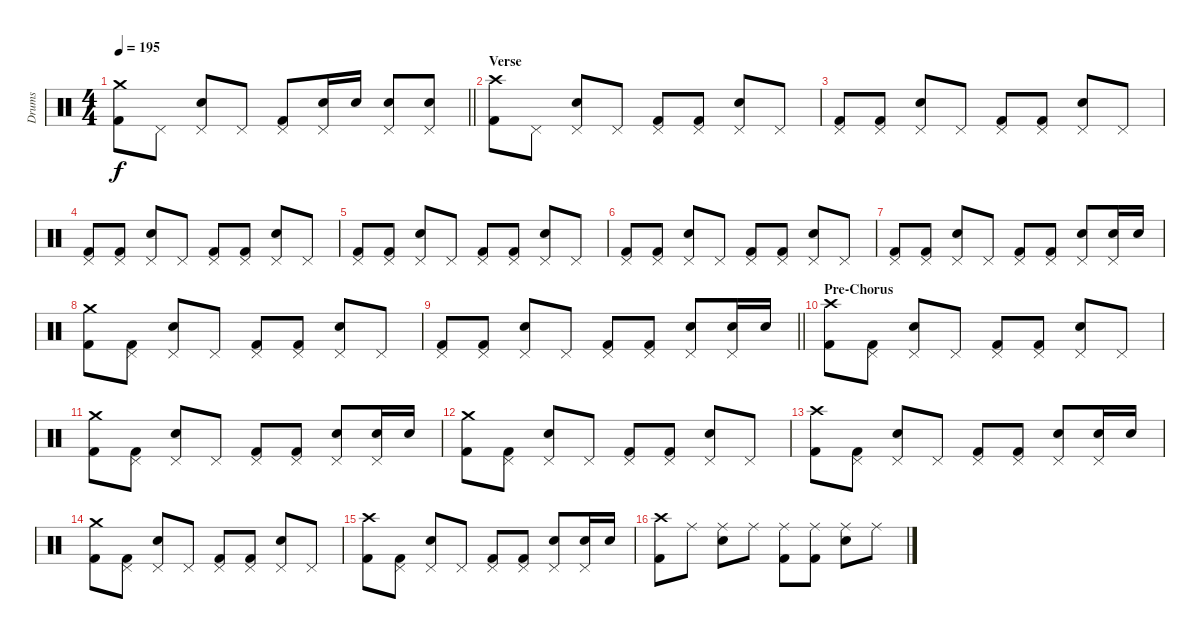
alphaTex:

\track ("Drums" "Drums") {instrument percussion}
\staff {score}
\articulation defaults
\ts (4 4)
\tempo 195
\clef neutral
\barLineRight lightlight
\ks c
("Crash medium (hit)" "Kick (hit) 2").8{dy f} "Pedal Hi-Hat (hit)".8 ("Pedal Hi-Hat (hit)" "Electric Snare (hit)").8 "Pedal Hi-Hat (hit)".8 ("Pedal Hi-Hat (hit)" "Kick (hit) 2").8 ("Pedal Hi-Hat (hit)" "Electric Snare (hit)").16 "Electric Snare (hit)".16 ("Pedal Hi-Hat (hit)" "Electric Snare (hit)").8 ("Pedal Hi-Hat (hit)" "Electric Snare (hit)").8 |
\section ("" "Verse")
("Crash high (hit)" "Kick (hit) 2").8 "Pedal Hi-Hat (hit)".8 ("Pedal Hi-Hat (hit)" "Electric Snare (hit)").8 "Pedal Hi-Hat (hit)".8 ("Pedal Hi-Hat (hit)" "Kick (hit) 2").8 ("Pedal Hi-Hat (hit)" "Kick (hit) 2").8 ("Pedal Hi-Hat (hit)" "Electric Snare (hit)").8 "Pedal Hi-Hat (hit)".8 |
("Pedal Hi-Hat (hit)" "Kick (hit) 2").8 ("Pedal Hi-Hat (hit)" "Kick (hit) 2").8 ("Pedal Hi-Hat (hit)" "Electric Snare (hit)").8 "Pedal Hi-Hat (hit)".8 ("Pedal Hi-Hat (hit)" "Kick (hit) 2").8 ("Pedal Hi-Hat (hit)" "Kick (hit) 2").8 ("Pedal Hi-Hat (hit)" "Electric Snare (hit)").8 "Pedal Hi-Hat (hit)".8 |
("Pedal Hi-Hat (hit)" "Kick (hit) 2").8 ("Pedal Hi-Hat (hit)" "Kick (hit) 2").8 ("Pedal Hi-Hat (hit)" "Electric Snare (hit)").8 "Pedal Hi-Hat (hit)".8 ("Pedal Hi-Hat (hit)" "Kick (hit) 2").8 ("Pedal Hi-Hat (hit)" "Kick (hit) 2").8 ("Pedal Hi-Hat (hit)" "Electric Snare (hit)").8 "Pedal Hi-Hat (hit)".8 |
("Pedal Hi-Hat (hit)" "Kick (hit) 2").8 ("Pedal Hi-Hat (hit)" "Kick (hit) 2").8 ("Pedal Hi-Hat (hit)" "Electric Snare (hit)").8 "Pedal Hi-Hat (hit)".8 ("Pedal Hi-Hat (hit)" "Kick (hit) 2").8 ("Pedal Hi-Hat (hit)" "Kick (hit) 2").8 ("Pedal Hi-Hat (hit)" "Electric Snare (hit)").8 "Pedal Hi-Hat (hit)".8 |
("Pedal Hi-Hat (hit)" "Kick (hit) 2").8 ("Pedal Hi-Hat (hit)" "Kick (hit) 2").8 ("Pedal Hi-Hat (hit)" "Electric Snare (hit)").8 "Pedal Hi-Hat (hit)".8 ("Pedal Hi-Hat (hit)" "Kick (hit) 2").8 ("Pedal Hi-Hat (hit)" "Kick (hit) 2").8 ("Pedal Hi-Hat (hit)" "Electric Snare (hit)").8 "Pedal Hi-Hat (hit)".8 |
("Pedal Hi-Hat (hit)" "Kick (hit) 2").8 ("Pedal Hi-Hat (hit)" "Kick (hit) 2").8 ("Pedal Hi-Hat (hit)" "Electric Snare (hit)").8 "Pedal Hi-Hat (hit)".8 ("Pedal Hi-Hat (hit)" "Kick (hit) 2").8 ("Pedal Hi-Hat (hit)" "Kick (hit) 2").8 ("Pedal Hi-Hat (hit)" "Electric Snare (hit)").8 ("Pedal Hi-Hat (hit)" "Electric Snare (hit)").16 "Electric Snare (hit)".16 |
("Crash medium (hit)" "Kick (hit) 2").8 ("Pedal Hi-Hat (hit)" "Kick (hit) 2").8 ("Pedal Hi-Hat (hit)" "Electric Snare (hit)").8 "Pedal Hi-Hat (hit)".8 ("Pedal Hi-Hat (hit)" "Kick (hit) 2").8 ("Pedal Hi-Hat (hit)" "Kick (hit) 2").8 ("Pedal Hi-Hat (hit)" "Electric Snare (hit)").8 "Pedal Hi-Hat (hit)".8 |
\barLineRight lightlight
("Pedal Hi-Hat (hit)" "Kick (hit) 2").8 ("Pedal Hi-Hat (hit)" "Kick (hit) 2").8 ("Pedal Hi-Hat (hit)" "Electric Snare (hit)").8 "Pedal Hi-Hat (hit)".8 ("Pedal Hi-Hat (hit)" "Kick (hit) 2").8 ("Pedal Hi-Hat (hit)" "Kick (hit) 2").8 ("Pedal Hi-Hat (hit)" "Electric Snare (hit)").8 ("Pedal Hi-Hat (hit)" "Electric Snare (hit)").16 "Electric Snare (hit)".16 |
\section ("" "Pre-Chorus")
("Crash high (hit)" "Kick (hit) 2").8 ("Pedal Hi-Hat (hit)" "Kick (hit) 2").8 ("Pedal Hi-Hat (hit)" "Electric Snare (hit)").8 "Pedal Hi-Hat (hit)".8 ("Pedal Hi-Hat (hit)" "Kick (hit) 2").8 ("Pedal Hi-Hat (hit)" "Kick (hit) 2").8 ("Pedal Hi-Hat (hit)" "Electric Snare (hit)").8 "Pedal Hi-Hat (hit)".8 |
("Crash medium (hit)" "Kick (hit) 2").8 ("Pedal Hi-Hat (hit)" "Kick (hit) 2").8 ("Pedal Hi-Hat (hit)" "Electric Snare (hit)").8 "Pedal Hi-Hat (hit)".8 ("Pedal Hi-Hat (hit)" "Kick (hit) 2").8 ("Pedal Hi-Hat (hit)" "Kick (hit) 2").8 ("Pedal Hi-Hat (hit)" "Electric Snare (hit)").8 ("Pedal Hi-Hat (hit)" "Electric Snare (hit)").16 "Electric Snare (hit)".16 |
("Crash medium (hit)" "Kick (hit) 2").8 ("Pedal Hi-Hat (hit)" "Kick (hit) 2").8 ("Pedal Hi-Hat (hit)" "Electric Snare (hit)").8 "Pedal Hi-Hat (hit)".8 ("Pedal Hi-Hat (hit)" "Kick (hit) 2").8 ("Pedal Hi-Hat (hit)" "Kick (hit) 2").8 ("Pedal Hi-Hat (hit)" "Electric Snare (hit)").8 "Pedal Hi-Hat (hit)".8 |
("Crash high (hit)" "Kick (hit) 2").8 ("Pedal Hi-Hat (hit)" "Kick (hit) 2").8 ("Pedal Hi-Hat (hit)" "Electric Snare (hit)").8 "Pedal Hi-Hat (hit)".8 ("Pedal Hi-Hat (hit)" "Kick (hit) 2").8 ("Pedal Hi-Hat (hit)" "Kick (hit) 2").8 ("Pedal Hi-Hat (hit)" "Electric Snare (hit)").8 ("Pedal Hi-Hat (hit)" "Electric Snare (hit)").16 "Electric Snare (hit)".16 |
("Crash medium (hit)" "Kick (hit) 2").8 ("Pedal Hi-Hat (hit)" "Kick (hit) 2").8 ("Pedal Hi-Hat (hit)" "Electric Snare (hit)").8 "Pedal Hi-Hat (hit)".8 ("Pedal Hi-Hat (hit)" "Kick (hit) 2").8 ("Pedal Hi-Hat (hit)" "Kick (hit) 2").8 ("Pedal Hi-Hat (hit)" "Electric Snare (hit)").8 "Pedal Hi-Hat (hit)".8 |
("Crash high (hit)" "Kick (hit) 2").8 ("Pedal Hi-Hat (hit)" "Kick (hit) 2").8 ("Pedal Hi-Hat (hit)" "Electric Snare (hit)").8 "Pedal Hi-Hat (hit)".8 ("Pedal Hi-Hat (hit)" "Kick (hit) 2").8 ("Pedal Hi-Hat (hit)" "Kick (hit) 2").8 ("Pedal Hi-Hat (hit)" "Electric Snare (hit)").8 ("Pedal Hi-Hat (hit)" "Electric Snare (hit)").16 "Electric Snare (hit)".16 |
("Crash high (hit)" "Kick (hit) 2").8 "Ride (middle)".8 ("Ride (middle)" "Electric Snare (hit)").8 "Ride (middle)".8 ("Ride (middle)" "Kick (hit) 2").8 ("Ride (middle)" "Kick (hit) 2").8 ("Ride (middle)" "Electric Snare (hit)").8 "Ride (middle)".8
